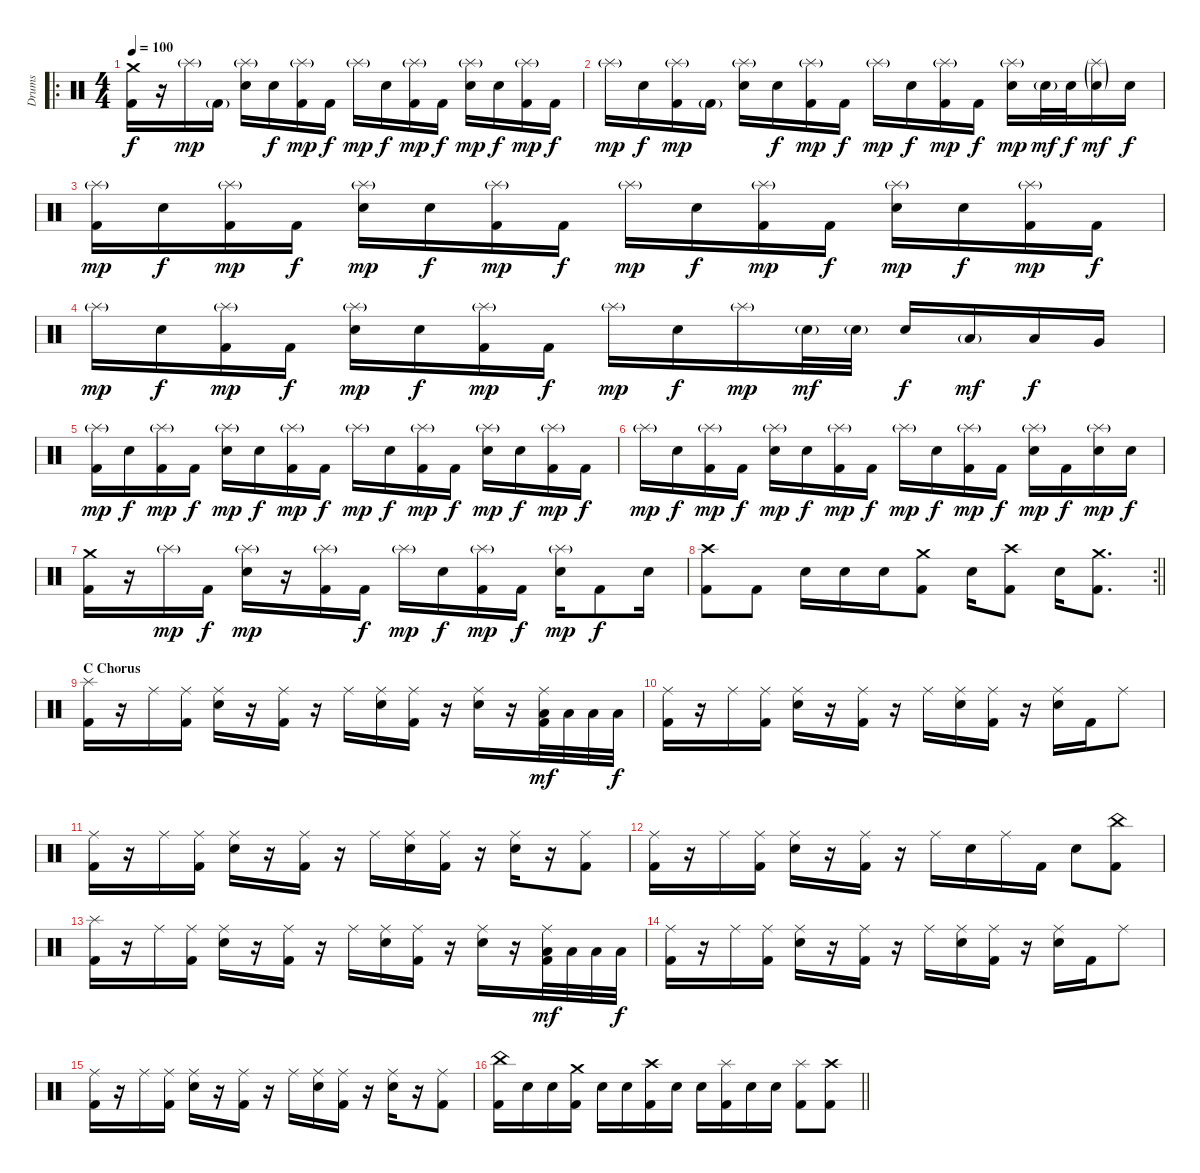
\track ("Drums" "Drums") {instrument percussion}
\staff {score}
\articulation defaults
\ro
\ts (4 4)
\tempo 100
\clef neutral
\ks c
("Crash medium (hit)" "Kick (hit) 2").16{dy f} r.16 "Splash (hit)"{g}.16{dy mp} "Kick (hit) 2"{g}.16 ("Splash (hit)"{g} "Electric Snare (hit)").16 "Electric Snare (hit)".16{dy f} ("Splash (hit)"{g} "Kick (hit) 2").16{dy mp} "Kick (hit) 2".16{dy f} "Splash (hit)"{g}.16{dy mp} "Electric Snare (hit)".16{dy f} ("Splash (hit)"{g} "Kick (hit) 2").16{dy mp} "Kick (hit) 2".16{dy f} ("Splash (hit)"{g} "Electric Snare (hit)").16{dy mp} "Electric Snare (hit)".16{dy f} ("Splash (hit)"{g} "Kick (hit) 2").16{dy mp} "Kick (hit) 2".16{dy f} |
"Splash (hit)"{g}.16{dy mp} "Electric Snare (hit)".16{dy f} ("Splash (hit)"{g} "Kick (hit) 2").16{dy mp} "Kick (hit) 2"{g}.16 ("Splash (hit)"{g} "Electric Snare (hit)").16 "Electric Snare (hit)".16{dy f} ("Splash (hit)"{g} "Kick (hit) 2").16{dy mp} "Kick (hit) 2".16{dy f} "Splash (hit)"{g}.16{dy mp} "Electric Snare (hit)".16{dy f} ("Splash (hit)"{g} "Kick (hit) 2").16{dy mp} "Kick (hit) 2".16{dy f} ("Splash (hit)"{g} "Electric Snare (hit)").16{dy mp} "Electric Snare (hit)"{g}.32{dy mf} "Electric Snare (hit)".32{dy f} ("Splash (hit)"{g} "Electric Snare (hit)"{g}).16{dy mf} "Electric Snare (hit)".16{dy f} |
("Splash (hit)"{g} "Kick (hit) 2").16{dy mp} "Electric Snare (hit)".16{dy f} ("Splash (hit)"{g} "Kick (hit) 2").16{dy mp} "Kick (hit) 2".16{dy f} ("Splash (hit)"{g} "Electric Snare (hit)").16{dy mp} "Electric Snare (hit)".16{dy f} ("Splash (hit)"{g} "Kick (hit) 2").16{dy mp} "Kick (hit) 2".16{dy f} "Splash (hit)"{g}.16{dy mp} "Electric Snare (hit)".16{dy f} ("Splash (hit)"{g} "Kick (hit) 2").16{dy mp} "Kick (hit) 2".16{dy f} ("Splash (hit)"{g} "Electric Snare (hit)").16{dy mp} "Electric Snare (hit)".16{dy f} ("Splash (hit)"{g} "Kick (hit) 2").16{dy mp} "Kick (hit) 2".16{dy f} |
"Splash (hit)"{g}.16{dy mp} "Electric Snare (hit)".16{dy f} ("Splash (hit)"{g} "Kick (hit) 2").16{dy mp} "Kick (hit) 2".16{dy f} ("Splash (hit)"{g} "Electric Snare (hit)").16{dy mp} "Electric Snare (hit)".16{dy f} ("Splash (hit)"{g} "Kick (hit) 2").16{dy mp} "Kick (hit) 2".16{dy f} "Splash (hit)"{g}.16{dy mp} "Electric Snare (hit)".16{dy f} "Splash (hit)"{g}.16{dy mp} "Electric Snare (hit)"{g}.32{dy mf} "Electric Snare (hit)"{g}.32 "Electric Snare (hit)".16{dy f} "Low Tom (hit)"{g}.16{dy mf} "Low Tom (hit)".16{dy f} "Very Low Tom (hit)".16 |
("Splash (hit)"{g} "Kick (hit) 2").16{dy mp} "Electric Snare (hit)".16{dy f} ("Splash (hit)"{g} "Kick (hit) 2").16{dy mp} "Kick (hit) 2".16{dy f} ("Splash (hit)"{g} "Electric Snare (hit)").16{dy mp} "Electric Snare (hit)".16{dy f} ("Splash (hit)"{g} "Kick (hit) 2").16{dy mp} "Kick (hit) 2".16{dy f} "Splash (hit)"{g}.16{dy mp} "Electric Snare (hit)".16{dy f} ("Splash (hit)"{g} "Kick (hit) 2").16{dy mp} "Kick (hit) 2".16{dy f} ("Splash (hit)"{g} "Electric Snare (hit)").16{dy mp} "Electric Snare (hit)".16{dy f} ("Splash (hit)"{g} "Kick (hit) 2").16{dy mp} "Kick (hit) 2".16{dy f} |
"Splash (hit)"{g}.16{dy mp} "Electric Snare (hit)".16{dy f} ("Splash (hit)"{g} "Kick (hit) 2").16{dy mp} "Kick (hit) 2".16{dy f} ("Splash (hit)"{g} "Electric Snare (hit)").16{dy mp} "Electric Snare (hit)".16{dy f} ("Splash (hit)"{g} "Kick (hit) 2").16{dy mp} "Kick (hit) 2".16{dy f} "Splash (hit)"{g}.16{dy mp} "Electric Snare (hit)".16{dy f} ("Splash (hit)"{g} "Kick (hit) 2").16{dy mp} "Kick (hit) 2".16{dy f} ("Splash (hit)"{g} "Electric Snare (hit)").16{dy mp} "Kick (hit) 2".16{dy f} ("Splash (hit)"{g} "Electric Snare (hit)").16{dy mp} "Electric Snare (hit)".16{dy f} |
("Crash medium (hit)" "Kick (hit) 2").16 r.16 "Splash (hit)"{g}.16{dy mp} "Kick (hit) 2".16{dy f} ("Splash (hit)"{g} "Electric Snare (hit)").16{dy mp} r.16 ("Splash (hit)"{g} "Kick (hit) 2").16 "Kick (hit) 2".16{dy f} "Splash (hit)"{g}.16{dy mp} "Electric Snare (hit)".16{dy f} ("Splash (hit)"{g} "Kick (hit) 2").16{dy mp} "Kick (hit) 2".16{dy f} ("Splash (hit)"{g} "Electric Snare (hit)").16{dy mp} "Kick (hit) 2".8{dy f} "Electric Snare (hit)".16 |
\rc 2
\barLineRight lightlight
("Crash high (hit)" "Kick (hit) 2").8 "Kick (hit) 2".8 "Electric Snare (hit)".16 "Electric Snare (hit)".16 "Electric Snare (hit)".16 ("Crash medium (hit)" "Kick (hit) 2").8 "Electric Snare (hit)".16 ("Crash high (hit)" "Kick (hit) 2").8 "Electric Snare (hit)".16 ("Crash medium (hit)" "Kick (hit) 2").8{d} |
\section ("" "C Chorus")
("Splash (hit)" "Kick (hit) 2").16 r.16 "Ride (middle)".16 ("Ride (middle)" "Kick (hit) 2").16 ("Ride (middle)" "Electric Snare (hit)").16 r.16 ("Ride (middle)" "Kick (hit) 2").16 r.16 "Ride (middle)".16 ("Ride (middle)" "Electric Snare (hit)").16 ("Ride (middle)" "Kick (hit) 2").16 r.16 ("Ride (middle)" "Electric Snare (hit)").16 r.16 ("Ride (middle)" "Low Floor Tom (hit)" "Kick (hit) 2").32{dy mf} "Low Floor Tom (hit)".32 "Low Floor Tom (hit)".32 "Low Floor Tom (hit)".32{dy f} |
("Ride (middle)" "Kick (hit) 2").16 r.16 "Ride (middle)".16 ("Ride (middle)" "Kick (hit) 2").16 ("Ride (middle)" "Electric Snare (hit)").16 r.16 ("Ride (middle)" "Kick (hit) 2").16 r.16 "Ride (middle)".16 ("Ride (middle)" "Electric Snare (hit)").16 ("Ride (middle)" "Kick (hit) 2").16 r.16 ("Ride (middle)" "Electric Snare (hit)").16 "Kick (hit) 2".16 "Ride (middle)".8 |
("Ride (middle)" "Kick (hit) 2").16 r.16 "Ride (middle)".16 ("Ride (middle)" "Kick (hit) 2").16 ("Ride (middle)" "Electric Snare (hit)").16 r.16 ("Ride (middle)" "Kick (hit) 2").16 r.16 "Ride (middle)".16 ("Ride (middle)" "Electric Snare (hit)").16 ("Ride (middle)" "Kick (hit) 2").16 r.16 ("Ride (middle)" "Electric Snare (hit)").16 r.16 ("Ride (middle)" "Kick (hit) 2").8 |
("Ride (middle)" "Kick (hit) 2").16 r.16 "Ride (middle)".16 ("Ride (middle)" "Kick (hit) 2").16 ("Ride (middle)" "Electric Snare (hit)").16 r.16 ("Ride (middle)" "Kick (hit) 2").16 r.16 "Ride (middle)".16 "Electric Snare (hit)".16 "Ride (middle)".16 "Kick (hit) 2".16 "Electric Snare (hit)".8 ("China (hit)" "Kick (hit) 2").8 |
("Splash (hit)" "Kick (hit) 2").16 r.16 "Ride (middle)".16 ("Ride (middle)" "Kick (hit) 2").16 ("Ride (middle)" "Electric Snare (hit)").16 r.16 ("Ride (middle)" "Kick (hit) 2").16 r.16 "Ride (middle)".16 ("Ride (middle)" "Electric Snare (hit)").16 ("Ride (middle)" "Kick (hit) 2").16 r.16 ("Ride (middle)" "Electric Snare (hit)").16 r.16 ("Ride (middle)" "Low Floor Tom (hit)" "Kick (hit) 2").32{dy mf} "Low Floor Tom (hit)".32 "Low Floor Tom (hit)".32 "Low Floor Tom (hit)".32{dy f} |
("Ride (middle)" "Kick (hit) 2").16 r.16 "Ride (middle)".16 ("Ride (middle)" "Kick (hit) 2").16 ("Ride (middle)" "Electric Snare (hit)").16 r.16 ("Ride (middle)" "Kick (hit) 2").16 r.16 "Ride (middle)".16 ("Ride (middle)" "Electric Snare (hit)").16 ("Ride (middle)" "Kick (hit) 2").16 r.16 ("Ride (middle)" "Electric Snare (hit)").16 "Kick (hit) 2".16 "Ride (middle)".8 |
("Ride (middle)" "Kick (hit) 2").16 r.16 "Ride (middle)".16 ("Ride (middle)" "Kick (hit) 2").16 ("Ride (middle)" "Electric Snare (hit)").16 r.16 ("Ride (middle)" "Kick (hit) 2").16 r.16 "Ride (middle)".16 ("Ride (middle)" "Electric Snare (hit)").16 ("Ride (middle)" "Kick (hit) 2").16 r.16 ("Ride (middle)" "Electric Snare (hit)").16 r.16 ("Ride (middle)" "Kick (hit) 2").8 |
\barLineRight lightlight
("China (hit)" "Kick (hit) 2").16 "Electric Snare (hit)".16 "Electric Snare (hit)".16 ("Crash medium (hit)" "Kick (hit) 2").16 "Electric Snare (hit)".16 "Electric Snare (hit)".16 ("Crash high (hit)" "Kick (hit) 2").16 "Electric Snare (hit)".16 "Electric Snare (hit)".16 ("Splash (hit)" "Kick (hit) 2").16 "Electric Snare (hit)".16 "Electric Snare (hit)".16 ("Splash (hit)" "Kick (hit) 2").8 ("Crash high (hit)" "Kick (hit) 2").8
